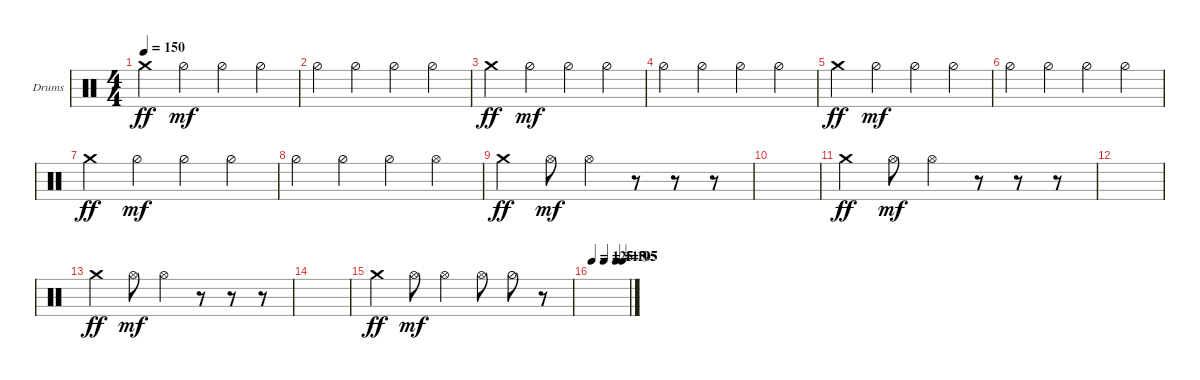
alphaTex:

\defaultSystemsLayout 4
\bracketExtendMode groupsimilarinstruments
\firstSystemTrackNameOrientation horizontal
\otherSystemsTrackNameOrientation horizontal
\track ("Drumkit" "Drums") {instrument percussion}
\staff {score}
\articulation defaults
\ts (4 4)
\tempo 150
\clef neutral
\scale
0.333333
\ks c "Crash medium (hit)".4{dy ff} "Hi-Hat (half)".4{dy mf} "Hi-Hat (half)".4 "Hi-Hat (half)".4
|
\scale
0.333333 "Hi-Hat (half)".4 "Hi-Hat (half)".4 "Hi-Hat (half)".4 "Hi-Hat (half)".4 |
\scale
0.333333 "Crash medium (hit)".4{dy ff} "Hi-Hat (half)".4{dy mf} "Hi-Hat (half)".4 "Hi-Hat (half)".4 |
\scale
0.333333 "Hi-Hat (half)".4 "Hi-Hat (half)".4 "Hi-Hat (half)".4 "Hi-Hat (half)".4 |
\scale
0.333333 "Crash medium (hit)".4{dy ff} "Hi-Hat (half)".4{dy mf} "Hi-Hat (half)".4 "Hi-Hat (half)".4 |
\scale
0.333333 "Hi-Hat (half)".4 "Hi-Hat (half)".4 "Hi-Hat (half)".4 "Hi-Hat (half)".4 |
\scale
0.333333 "Crash medium (hit)".4{dy ff} "Hi-Hat (half)".4{dy mf} "Hi-Hat (half)".4 "Hi-Hat (half)".4 |
\scale
0.333333 "Hi-Hat (half)".4 "Hi-Hat (half)".4 "Hi-Hat (half)".4 "Hi-Hat (open)".4 |
\scale
0.333333 "Crash medium (hit)".4{dy ff} "Hi-Hat (open)".8{dy mf} "Hi-Hat (open)".4 r.8 r.8 r.8 |
\scale
0.333333 |
\scale
0.333333 "Crash medium (hit)".4{dy ff} "Hi-Hat (open)".8{dy mf} "Hi-Hat (open)".4 r.8 r.8 r.8 |
\scale
0.333333 |
\scale
0.333333 "Crash medium (hit)".4{dy ff} "Hi-Hat (open)".8{dy mf} "Hi-Hat (open)".4 r.8 r.8 r.8 |
\scale
0.333333 |
\scale
0.333333 "Crash medium (hit)".4{dy ff} "Hi-Hat (open)".8{dy mf} "Hi-Hat (open)".4 "Hi-Hat (open)".8 "Hi-Hat (half)".8 r.8 |
\tempo 125
\tempo (115 0.333333)
\tempo (105 0.666667)
\tempo (95 0.833333)
\scale
0.333333
